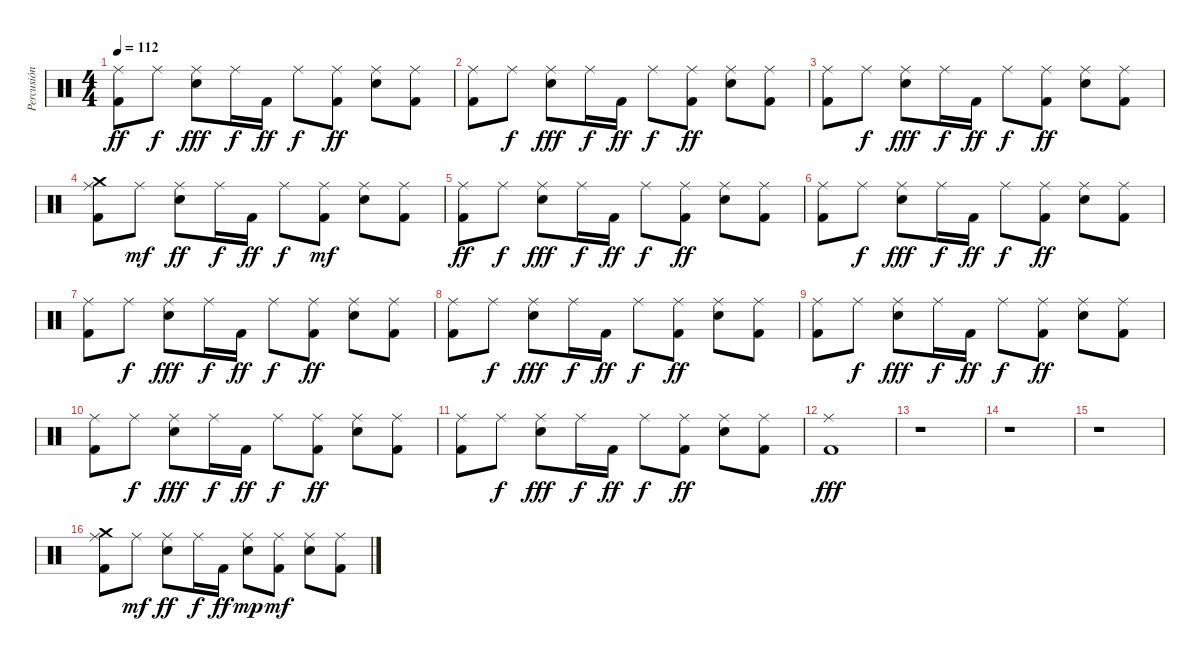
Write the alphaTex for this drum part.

\track ("Percusión" "Percusión") {instrument percussion}
\staff {score}
\articulation defaults
\ts (4 4)
\tempo 112
\clef neutral
\ks c
("Kick (hit) 2" "Ride (middle)").8{dy ff} "Ride (middle)".8{dy f} ("Snare (hit) 2" "Ride (middle)").8{dy fff} "Ride (middle)".16{dy f} "Kick (hit) 2".16{dy ff} "Ride (middle)".8{dy f} ("Kick (hit) 2" "Ride (middle)").8{dy ff} ("Snare (hit) 2" "Ride (middle)").8 ("Kick (hit) 2" "Ride (middle)").8 |
("Kick (hit) 2" "Ride (middle)").8 "Ride (middle)".8{dy f} ("Snare (hit) 2" "Ride (middle)").8{dy fff} "Ride (middle)".16{dy f} "Kick (hit) 2".16{dy ff} "Ride (middle)".8{dy f} ("Kick (hit) 2" "Ride (middle)").8{dy ff} ("Snare (hit) 2" "Ride (middle)").8 ("Kick (hit) 2" "Ride (middle)").8 |
("Kick (hit) 2" "Ride (middle)").8 "Ride (middle)".8{dy f} ("Snare (hit) 2" "Ride (middle)").8{dy fff} "Ride (middle)".16{dy f} "Kick (hit) 2".16{dy ff} "Ride (middle)".8{dy f} ("Kick (hit) 2" "Ride (middle)").8{dy ff} ("Snare (hit) 2" "Ride (middle)").8 ("Kick (hit) 2" "Ride (middle)").8 |
("Kick (hit) 2" "Ride (middle)" "Crash medium (hit)").8 "Ride (middle)".8{dy mf} ("Snare (hit) 2" "Ride (middle)").8{dy ff} "Ride (middle)".16{dy f} "Kick (hit) 2".16{dy ff} "Ride (middle)".8{dy f} ("Kick (hit) 2" "Ride (middle)").8{dy mf} ("Snare (hit) 2" "Ride (middle)").8 ("Kick (hit) 2" "Ride (middle)").8 |
("Kick (hit) 2" "Ride (middle)").8{dy ff} "Ride (middle)".8{dy f} ("Snare (hit) 2" "Ride (middle)").8{dy fff} "Ride (middle)".16{dy f} "Kick (hit) 2".16{dy ff} "Ride (middle)".8{dy f} ("Kick (hit) 2" "Ride (middle)").8{dy ff} ("Snare (hit) 2" "Ride (middle)").8 ("Kick (hit) 2" "Ride (middle)").8 |
("Kick (hit) 2" "Ride (middle)").8 "Ride (middle)".8{dy f} ("Snare (hit) 2" "Ride (middle)").8{dy fff} "Ride (middle)".16{dy f} "Kick (hit) 2".16{dy ff} "Ride (middle)".8{dy f} ("Kick (hit) 2" "Ride (middle)").8{dy ff} ("Snare (hit) 2" "Ride (middle)").8 ("Kick (hit) 2" "Ride (middle)").8 |
("Kick (hit) 2" "Ride (middle)").8 "Ride (middle)".8{dy f} ("Snare (hit) 2" "Ride (middle)").8{dy fff} "Ride (middle)".16{dy f} "Kick (hit) 2".16{dy ff} "Ride (middle)".8{dy f} ("Kick (hit) 2" "Ride (middle)").8{dy ff} ("Snare (hit) 2" "Ride (middle)").8 ("Kick (hit) 2" "Ride (middle)").8 |
("Kick (hit) 2" "Ride (middle)").8 "Ride (middle)".8{dy f} ("Snare (hit) 2" "Ride (middle)").8{dy fff} "Ride (middle)".16{dy f} "Kick (hit) 2".16{dy ff} "Ride (middle)".8{dy f} ("Kick (hit) 2" "Ride (middle)").8{dy ff} ("Snare (hit) 2" "Ride (middle)").8 ("Kick (hit) 2" "Ride (middle)").8 |
("Kick (hit) 2" "Ride (middle)").8 "Ride (middle)".8{dy f} ("Snare (hit) 2" "Ride (middle)").8{dy fff} "Ride (middle)".16{dy f} "Kick (hit) 2".16{dy ff} "Ride (middle)".8{dy f} ("Kick (hit) 2" "Ride (middle)").8{dy ff} ("Snare (hit) 2" "Ride (middle)").8 ("Kick (hit) 2" "Ride (middle)").8 |
("Kick (hit) 2" "Ride (middle)").8 "Ride (middle)".8{dy f} ("Snare (hit) 2" "Ride (middle)").8{dy fff} "Ride (middle)".16{dy f} "Kick (hit) 2".16{dy ff} "Ride (middle)".8{dy f} ("Kick (hit) 2" "Ride (middle)").8{dy ff} ("Snare (hit) 2" "Ride (middle)").8 ("Kick (hit) 2" "Ride (middle)").8 |
("Kick (hit) 2" "Ride (middle)").8 "Ride (middle)".8{dy f} ("Snare (hit) 2" "Ride (middle)").8{dy fff} "Ride (middle)".16{dy f} "Kick (hit) 2".16{dy ff} "Ride (middle)".8{dy f} ("Kick (hit) 2" "Ride (middle)").8{dy ff} ("Snare (hit) 2" "Ride (middle)").8 ("Kick (hit) 2" "Ride (middle)").8 |
("Ride (middle)" "Kick (hit) 2").1{dy fff} |
r.1 |
r.1 |
r.1 |
("Crash medium (hit)" "Ride (middle)" "Kick (hit) 2").8 "Ride (middle)".8{dy mf} ("Snare (hit) 2" "Ride (middle)").8{dy ff} "Ride (middle)".16{dy f} "Kick (hit) 2".16{dy ff} ("Snare (hit)" "Ride (middle)").8{dy mp} ("Kick (hit) 2" "Ride (middle)").8{dy mf} ("Snare (hit) 2" "Ride (middle)").8 ("Kick (hit) 2" "Ride (middle)").8
